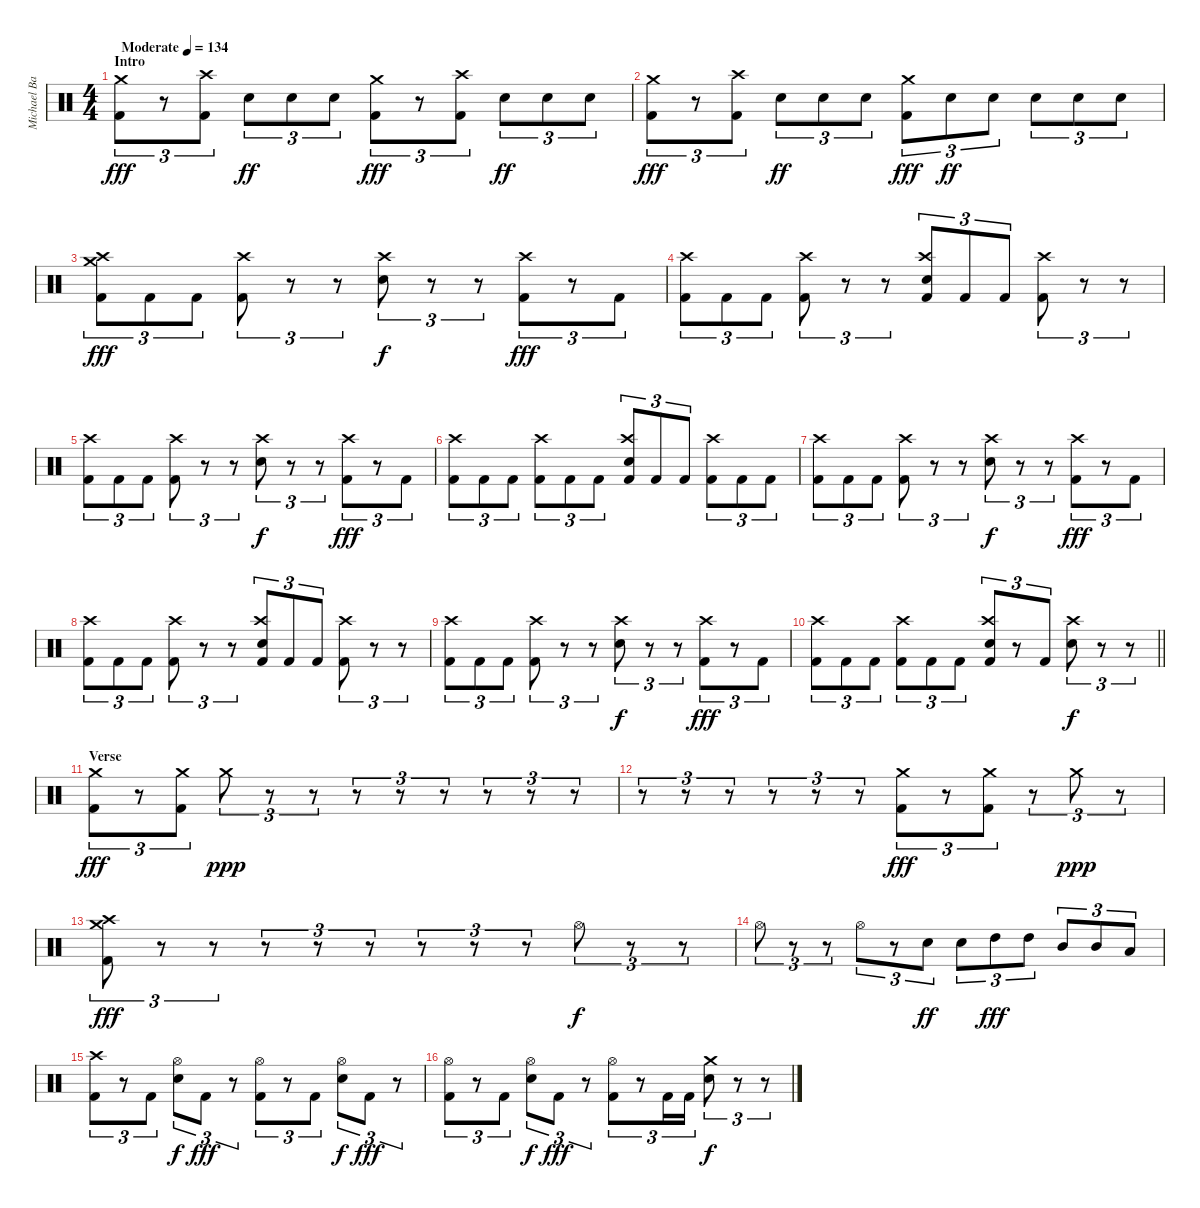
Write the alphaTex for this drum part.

\track ("Michael Bartlett " "Michael Ba") {instrument percussion}
\staff {score}
\articulation defaults
\ts (4 4)
\section ("" "Intro")
\tempo (134 "Moderate")
\clef neutral
\ks c
("Crash medium (hit)" "Kick (hit) 2").8{tu (3 2) dy fff} r.8{tu (3 2)} ("Crash high (hit)" "Kick (hit) 2").8{tu (3 2)} "Electric Snare (hit)".8{tu (3 2) dy ff} "Electric Snare (hit)".8{tu (3 2)} "Electric Snare (hit)".8{tu (3 2)} ("Crash medium (hit)" "Kick (hit) 2").8{tu (3 2) dy fff} r.8{tu (3 2)} ("Crash high (hit)" "Kick (hit) 2").8{tu (3 2)} "Electric Snare (hit)".8{tu (3 2) dy ff} "Electric Snare (hit)".8{tu (3 2)} "Electric Snare (hit)".8{tu (3 2)} |
("Crash medium (hit)" "Kick (hit) 2").8{tu (3 2) dy fff} r.8{tu (3 2)} ("Crash high (hit)" "Kick (hit) 2").8{tu (3 2)} "Electric Snare (hit)".8{tu (3 2) dy ff} "Electric Snare (hit)".8{tu (3 2)} "Electric Snare (hit)".8{tu (3 2)} ("Crash medium (hit)" "Kick (hit) 2").8{tu (3 2) dy fff} "Electric Snare (hit)".8{tu (3 2) dy ff} "Electric Snare (hit)".8{tu (3 2)} "Electric Snare (hit)".8{tu (3 2)} "Electric Snare (hit)".8{tu (3 2)} "Electric Snare (hit)".8{tu (3 2)} |
("Crash high (hit)" "Crash medium (hit)" "Kick (hit) 2").8{tu (3 2) dy fff} "Kick (hit) 2".8{tu (3 2)} "Kick (hit) 2".8{tu (3 2)} ("Crash high (hit)" "Kick (hit) 2").8{tu (3 2)} r.8{tu (3 2)} r.8{tu (3 2)} ("Crash high (hit)" "Electric Snare (hit)").8{tu (3 2) dy f} r.8{tu (3 2)} r.8{tu (3 2)} ("Crash high (hit)" "Kick (hit) 2").8{tu (3 2) dy fff} r.8{tu (3 2)} "Kick (hit) 2".8{tu (3 2)} |
("Crash high (hit)" "Kick (hit) 2").8{tu (3 2)} "Kick (hit) 2".8{tu (3 2)} "Kick (hit) 2".8{tu (3 2)} ("Crash high (hit)" "Kick (hit) 2").8{tu (3 2)} r.8{tu (3 2)} r.8{tu (3 2)} ("Crash high (hit)" "Electric Snare (hit)" "Kick (hit) 2").8{tu (3 2)} "Kick (hit) 2".8{tu (3 2)} "Kick (hit) 2".8{tu (3 2)} ("Crash high (hit)" "Kick (hit) 2").8{tu (3 2)} r.8{tu (3 2)} r.8{tu (3 2)} |
("Crash high (hit)" "Kick (hit) 2").8{tu (3 2)} "Kick (hit) 2".8{tu (3 2)} "Kick (hit) 2".8{tu (3 2)} ("Crash high (hit)" "Kick (hit) 2").8{tu (3 2)} r.8{tu (3 2)} r.8{tu (3 2)} ("Crash high (hit)" "Electric Snare (hit)").8{tu (3 2) dy f} r.8{tu (3 2)} r.8{tu (3 2)} ("Crash high (hit)" "Kick (hit) 2").8{tu (3 2) dy fff} r.8{tu (3 2)} "Kick (hit) 2".8{tu (3 2)} |
("Crash high (hit)" "Kick (hit) 2").8{tu (3 2)} "Kick (hit) 2".8{tu (3 2)} "Kick (hit) 2".8{tu (3 2)} ("Crash high (hit)" "Kick (hit) 2").8{tu (3 2)} "Kick (hit) 2".8{tu (3 2)} "Kick (hit) 2".8{tu (3 2)} ("Crash high (hit)" "Electric Snare (hit)" "Kick (hit) 2").8{tu (3 2)} "Kick (hit) 2".8{tu (3 2)} "Kick (hit) 2".8{tu (3 2)} ("Crash high (hit)" "Kick (hit) 2").8{tu (3 2)} "Kick (hit) 2".8{tu (3 2)} "Kick (hit) 2".8{tu (3 2)} |
("Crash high (hit)" "Kick (hit) 2").8{tu (3 2)} "Kick (hit) 2".8{tu (3 2)} "Kick (hit) 2".8{tu (3 2)} ("Crash high (hit)" "Kick (hit) 2").8{tu (3 2)} r.8{tu (3 2)} r.8{tu (3 2)} ("Crash high (hit)" "Electric Snare (hit)").8{tu (3 2) dy f} r.8{tu (3 2)} r.8{tu (3 2)} ("Crash high (hit)" "Kick (hit) 2").8{tu (3 2) dy fff} r.8{tu (3 2)} "Kick (hit) 2".8{tu (3 2)} |
("Crash high (hit)" "Kick (hit) 2").8{tu (3 2)} "Kick (hit) 2".8{tu (3 2)} "Kick (hit) 2".8{tu (3 2)} ("Crash high (hit)" "Kick (hit) 2").8{tu (3 2)} r.8{tu (3 2)} r.8{tu (3 2)} ("Crash high (hit)" "Electric Snare (hit)" "Kick (hit) 2").8{tu (3 2)} "Kick (hit) 2".8{tu (3 2)} "Kick (hit) 2".8{tu (3 2)} ("Crash high (hit)" "Kick (hit) 2").8{tu (3 2)} r.8{tu (3 2)} r.8{tu (3 2)} |
("Crash high (hit)" "Kick (hit) 2").8{tu (3 2)} "Kick (hit) 2".8{tu (3 2)} "Kick (hit) 2".8{tu (3 2)} ("Crash high (hit)" "Kick (hit) 2").8{tu (3 2)} r.8{tu (3 2)} r.8{tu (3 2)} ("Crash high (hit)" "Electric Snare (hit)").8{tu (3 2) dy f} r.8{tu (3 2)} r.8{tu (3 2)} ("Crash high (hit)" "Kick (hit) 2").8{tu (3 2) dy fff} r.8{tu (3 2)} "Kick (hit) 2".8{tu (3 2)} |
\barLineRight lightlight
("Crash high (hit)" "Kick (hit) 2").8{tu (3 2)} "Kick (hit) 2".8{tu (3 2)} "Kick (hit) 2".8{tu (3 2)} ("Crash high (hit)" "Kick (hit) 2").8{tu (3 2)} "Kick (hit) 2".8{tu (3 2)} "Kick (hit) 2".8{tu (3 2)} ("Crash high (hit)" "Electric Snare (hit)" "Kick (hit) 2").8{tu (3 2)} r.8{tu (3 2)} "Kick (hit) 2".8{tu (3 2)} ("Crash high (hit)" "Electric Snare (hit)").8{tu (3 2) dy f} r.8{tu (3 2)} r.8{tu (3 2)} |
\section ("" "Verse")
("Crash medium (hit)" "Kick (hit) 2").8{tu (3 2) dy fff} r.8{tu (3 2)} ("Crash medium (hit)" "Kick (hit) 2").8{tu (3 2)} "Crash medium (hit)".8{tu (3 2) dy ppp} r.8{tu (3 2)} r.8{tu (3 2)} r.8{tu (3 2)} r.8{tu (3 2)} r.8{tu (3 2)} r.8{tu (3 2)} r.8{tu (3 2)} r.8{tu (3 2)} |
r.8{tu (3 2)} r.8{tu (3 2)} r.8{tu (3 2)} r.8{tu (3 2)} r.8{tu (3 2)} r.8{tu (3 2)} ("Crash medium (hit)" "Kick (hit) 2").8{tu (3 2) dy fff} r.8{tu (3 2)} ("Crash medium (hit)" "Kick (hit) 2").8{tu (3 2)} r.8{tu (3 2)} "Crash medium (hit)".8{tu (3 2) dy ppp} r.8{tu (3 2)} |
("Crash medium (hit)" "Crash high (hit)" "Kick (hit) 2").8{tu (3 2) dy fff} r.8{tu (3 2)} r.8{tu (3 2)} r.8{tu (3 2)} r.8{tu (3 2)} r.8{tu (3 2)} r.8{tu (3 2)} r.8{tu (3 2)} r.8{tu (3 2)} "Hi-Hat (open)".8{tu (3 2) dy f} r.8{tu (3 2)} r.8{tu (3 2)} |
"Hi-Hat (open)".8{tu (3 2)} r.8{tu (3 2)} r.8{tu (3 2)} "Hi-Hat (open)".8{tu (3 2)} r.8{tu (3 2)} "Electric Snare (hit)".8{tu (3 2) dy ff} "Electric Snare (hit)".8{tu (3 2)} "High Tom (hit)".8{tu (3 2) dy fff} "High Tom (hit)".8{tu (3 2)} "Mid Tom (hit)".8{tu (3 2)} "Mid Tom (hit)".8{tu (3 2)} "Low Tom (hit)".8{tu (3 2)} |
("Crash high (hit)" "Kick (hit) 2").8{tu (3 2)} r.8{tu (3 2)} "Kick (hit) 2".8{tu (3 2)} ("Hi-Hat (open)" "Electric Snare (hit)").8{tu (3 2) dy f} "Kick (hit) 2".8{tu (3 2) dy fff} r.8{tu (3 2)} ("Hi-Hat (open)" "Kick (hit) 2").8{tu (3 2)} r.8{tu (3 2)} "Kick (hit) 2".8{tu (3 2)} ("Hi-Hat (open)" "Electric Snare (hit)").8{tu (3 2) dy f} "Kick (hit) 2".8{tu (3 2) dy fff} r.8{tu (3 2)} |
("Hi-Hat (open)" "Kick (hit) 2").8{tu (3 2)} r.8{tu (3 2)} "Kick (hit) 2".8{tu (3 2)} ("Hi-Hat (open)" "Electric Snare (hit)").8{tu (3 2) dy f} "Kick (hit) 2".8{tu (3 2) dy fff} r.8{tu (3 2)} ("Hi-Hat (open)" "Kick (hit) 2").8{tu (3 2)} r.8{tu (3 2)} "Kick (hit) 2".16{tu (3 2)} "Kick (hit) 2".16{tu (3 2)} ("Crash medium (hit)" "Electric Snare (hit)").8{tu (3 2) dy f} r.8{tu (3 2)} r.8{tu (3 2)}
